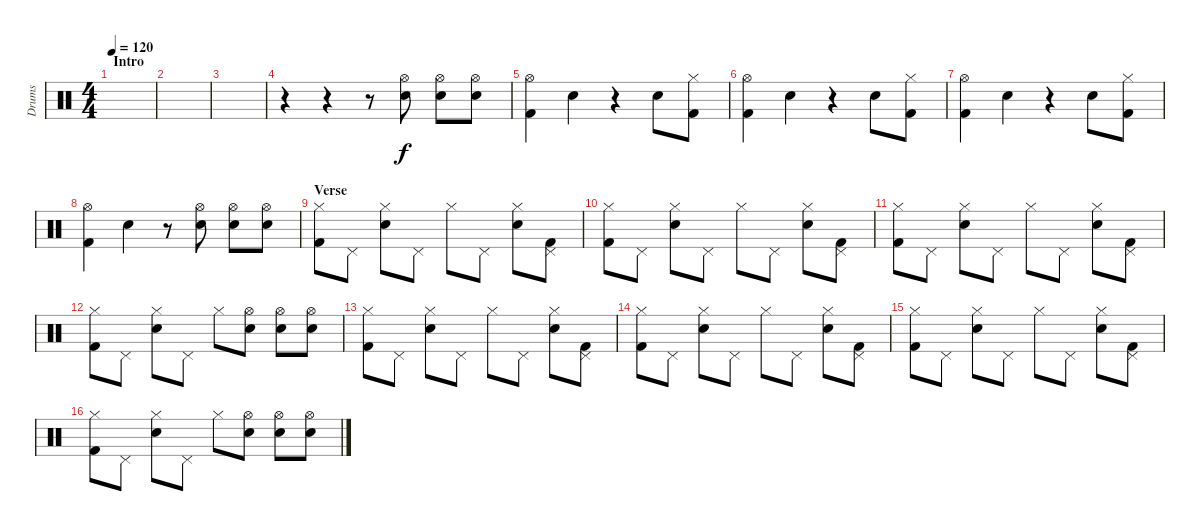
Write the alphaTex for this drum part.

\track ("Drums" "Drums") {instrument percussion}
\staff {score}
\articulation defaults
\ts (4 4)
\section ("" "Intro")
\tempo 120
\clef neutral
\ks c
|
|
|
r.4 r.4 r.8 ("Snare (hit) 2" "Hi-Hat (open)").8 ("Snare (hit) 2" "Hi-Hat (open)").8 ("Snare (hit) 2" "Hi-Hat (open)").8 |
("Kick (hit) 2" "Hi-Hat (open)").4 "Electric Snare (hit)".4 r.4 "Electric Snare (hit)".8 ("Kick (hit) 2" "Hi-Hat (closed)").8 |
("Kick (hit) 2" "Hi-Hat (open)").4 "Electric Snare (hit)".4 r.4 "Electric Snare (hit)".8 ("Kick (hit) 2" "Hi-Hat (closed)").8 |
("Kick (hit) 2" "Hi-Hat (open)").4 "Electric Snare (hit)".4 r.4 "Electric Snare (hit)".8 ("Kick (hit) 2" "Hi-Hat (closed)").8 |
("Kick (hit) 2" "Hi-Hat (open)").4 "Electric Snare (hit)".4 r.8 ("Snare (hit) 2" "Hi-Hat (open)").8 ("Snare (hit) 2" "Hi-Hat (open)").8 ("Snare (hit) 2" "Hi-Hat (open)").8 |
\section ("" "Verse")
("Kick (hit) 2" "Hi-Hat (closed)").8 "Pedal Hi-Hat (hit)".8 ("Electric Snare (hit)" "Hi-Hat (closed)").8 "Pedal Hi-Hat (hit)".8 "Hi-Hat (closed)".8 "Pedal Hi-Hat (hit)".8 ("Electric Snare (hit)" "Hi-Hat (closed)").8 ("Kick (hit) 2" "Pedal Hi-Hat (hit)").8 |
("Kick (hit) 2" "Hi-Hat (closed)").8 "Pedal Hi-Hat (hit)".8 ("Electric Snare (hit)" "Hi-Hat (closed)").8 "Pedal Hi-Hat (hit)".8 "Hi-Hat (closed)".8 "Pedal Hi-Hat (hit)".8 ("Electric Snare (hit)" "Hi-Hat (closed)").8 ("Kick (hit) 2" "Pedal Hi-Hat (hit)").8 |
("Kick (hit) 2" "Hi-Hat (closed)").8 "Pedal Hi-Hat (hit)".8 ("Electric Snare (hit)" "Hi-Hat (closed)").8 "Pedal Hi-Hat (hit)".8 "Hi-Hat (closed)".8 "Pedal Hi-Hat (hit)".8 ("Electric Snare (hit)" "Hi-Hat (closed)").8 ("Kick (hit) 2" "Pedal Hi-Hat (hit)").8 |
("Kick (hit) 2" "Hi-Hat (closed)").8 "Pedal Hi-Hat (hit)".8 ("Electric Snare (hit)" "Hi-Hat (closed)").8 "Pedal Hi-Hat (hit)".8 "Hi-Hat (closed)".8 ("Snare (hit) 2" "Hi-Hat (open)").8 ("Snare (hit) 2" "Hi-Hat (open)").8 ("Snare (hit) 2" "Hi-Hat (open)").8 |
("Kick (hit) 2" "Hi-Hat (closed)").8 "Pedal Hi-Hat (hit)".8 ("Electric Snare (hit)" "Hi-Hat (closed)").8 "Pedal Hi-Hat (hit)".8 "Hi-Hat (closed)".8 "Pedal Hi-Hat (hit)".8 ("Electric Snare (hit)" "Hi-Hat (closed)").8 ("Kick (hit) 2" "Pedal Hi-Hat (hit)").8 |
("Kick (hit) 2" "Hi-Hat (closed)").8 "Pedal Hi-Hat (hit)".8 ("Electric Snare (hit)" "Hi-Hat (closed)").8 "Pedal Hi-Hat (hit)".8 "Hi-Hat (closed)".8 "Pedal Hi-Hat (hit)".8 ("Electric Snare (hit)" "Hi-Hat (closed)").8 ("Kick (hit) 2" "Pedal Hi-Hat (hit)").8 |
("Kick (hit) 2" "Hi-Hat (closed)").8 "Pedal Hi-Hat (hit)".8 ("Electric Snare (hit)" "Hi-Hat (closed)").8 "Pedal Hi-Hat (hit)".8 "Hi-Hat (closed)".8 "Pedal Hi-Hat (hit)".8 ("Electric Snare (hit)" "Hi-Hat (closed)").8 ("Kick (hit) 2" "Pedal Hi-Hat (hit)").8 |
("Kick (hit) 2" "Hi-Hat (closed)").8 "Pedal Hi-Hat (hit)".8 ("Electric Snare (hit)" "Hi-Hat (closed)").8 "Pedal Hi-Hat (hit)".8 "Hi-Hat (closed)".8 ("Snare (hit) 2" "Hi-Hat (open)").8 ("Snare (hit) 2" "Hi-Hat (open)").8 ("Snare (hit) 2" "Hi-Hat (open)").8
